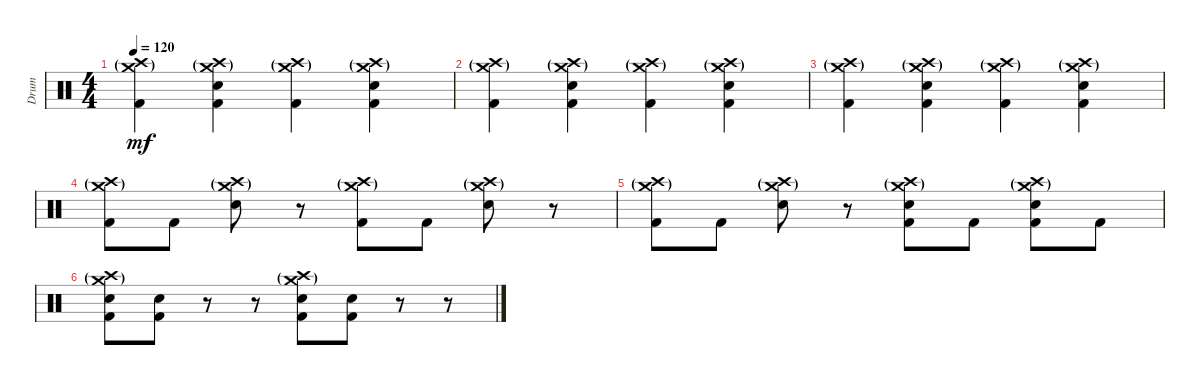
\track ("Drum" "Drum") {instrument percussion}
\staff {score}
\articulation defaults
\ts (4 4)
\tempo 120
\clef neutral
\ks c
("Crash medium (hit)"{g} "Crash high (hit)"{g} "Kick (hit) 2").4{dy mf} ("Crash medium (hit)"{g} "Crash high (hit)"{g} "Snare (hit) 2" "Kick (hit) 2").4 ("Crash medium (hit)"{g} "Crash high (hit)"{g} "Kick (hit) 2").4 ("Crash medium (hit)"{g} "Crash high (hit)"{g} "Snare (hit) 2" "Kick (hit) 2").4 |
("Crash medium (hit)"{g} "Crash high (hit)"{g} "Kick (hit) 2").4 ("Crash medium (hit)"{g} "Crash high (hit)"{g} "Snare (hit) 2" "Kick (hit) 2").4 ("Crash medium (hit)"{g} "Crash high (hit)"{g} "Kick (hit) 2").4 ("Crash medium (hit)"{g} "Crash high (hit)"{g} "Snare (hit) 2" "Kick (hit) 2").4 |
("Crash medium (hit)"{g} "Crash high (hit)"{g} "Kick (hit) 2").4 ("Crash medium (hit)"{g} "Crash high (hit)"{g} "Snare (hit) 2" "Kick (hit) 2").4 ("Crash medium (hit)"{g} "Crash high (hit)"{g} "Kick (hit) 2").4 ("Crash medium (hit)"{g} "Crash high (hit)"{g} "Snare (hit) 2" "Kick (hit) 2").4 |
("Crash medium (hit)"{g} "Crash high (hit)"{g} "Kick (hit) 2").8 "Kick (hit) 2".8 ("Crash medium (hit)"{g} "Crash high (hit)"{g} "Snare (hit) 2").8 r.8 ("Crash medium (hit)"{g} "Crash high (hit)"{g} "Kick (hit) 2").8 "Kick (hit) 2".8 ("Crash medium (hit)"{g} "Crash high (hit)"{g} "Snare (hit) 2").8 r.8 |
("Crash medium (hit)"{g} "Crash high (hit)"{g} "Kick (hit) 2").8 "Kick (hit) 2".8 ("Crash medium (hit)"{g} "Crash high (hit)"{g} "Snare (hit) 2").8 r.8 ("Crash medium (hit)"{g} "Crash high (hit)"{g} "Snare (hit) 2" "Kick (hit) 2").8 "Kick (hit) 2".8 ("Crash medium (hit)"{g} "Crash high (hit)"{g} "Snare (hit) 2" "Kick (hit) 2").8 "Kick (hit) 2".8 |
("Crash medium (hit)"{g} "Crash high (hit)"{g} "Snare (hit) 2" "Kick (hit) 2").8 ("Snare (hit) 2" "Kick (hit) 2").8 r.8 r.8 ("Crash medium (hit)"{g} "Crash high (hit)"{g} "Snare (hit) 2" "Kick (hit) 2").8 ("Snare (hit) 2" "Kick (hit) 2").8 r.8 r.8
